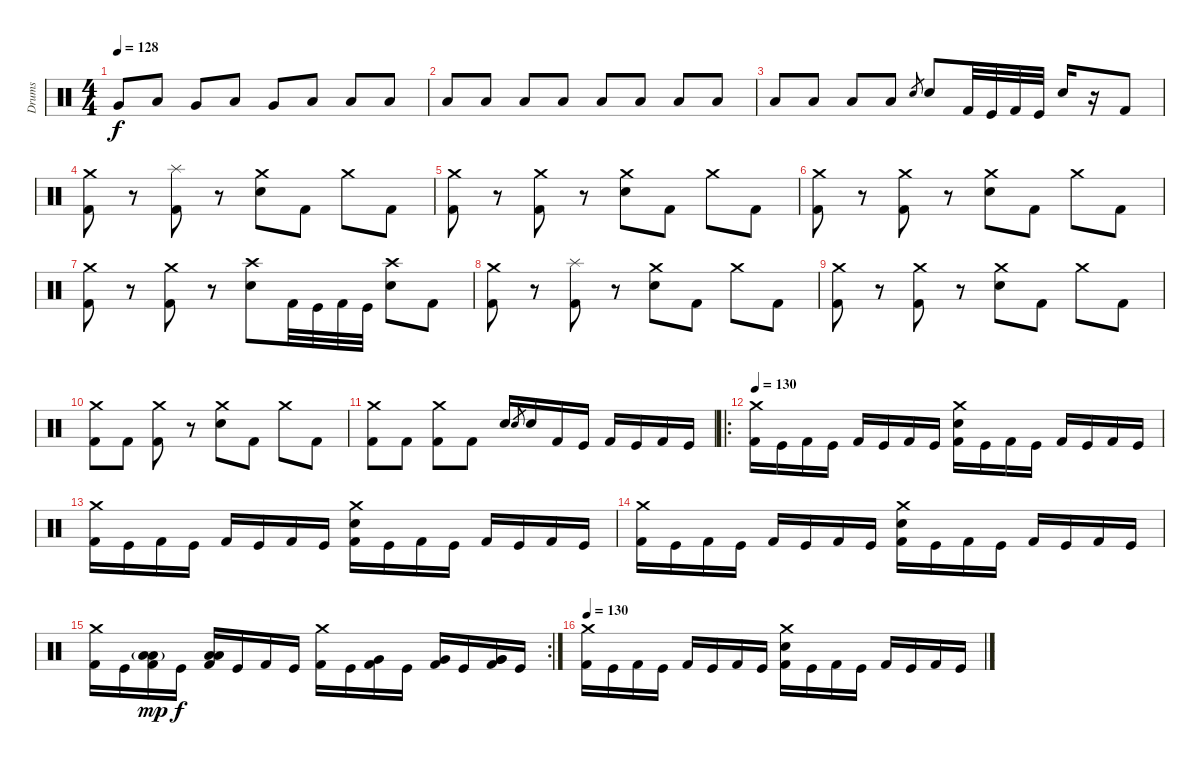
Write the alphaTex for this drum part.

\track ("Drums" "Drums") {instrument percussion}
\staff {score}
\articulation defaults
\ts (4 4)
\tempo 128
\clef neutral
\ks c "Very Low Tom (hit)".8{dy f} "Low Floor Tom (hit)".8 "Very Low Tom (hit)".8 "Low Floor Tom (hit)".8 "Very Low Tom (hit)".8 "Low Floor Tom (hit)".8 "Low Floor Tom (hit)".8 "Low Floor Tom (hit)".8
|
"Low Floor Tom (hit)".8 "Low Floor Tom (hit)".8 "Low Floor Tom (hit)".8 "Low Floor Tom (hit)".8 "Low Floor Tom (hit)".8 "Low Floor Tom (hit)".8 "Low Floor Tom (hit)".8 "Low Floor Tom (hit)".8 |
"Low Floor Tom (hit)".8 "Low Floor Tom (hit)".8 "Low Floor Tom (hit)".8 "Low Floor Tom (hit)".8 "Electric Snare (hit)".8{gr} "Electric Snare (hit)".8 "Kick (hit) 2".32 "Kick (hit)".32 "Kick (hit) 2".32 "Kick (hit)".32 "Electric Snare (hit)".16 r.16 "Kick (hit) 2".8 |
("Crash medium (hit)" "Kick (hit) 2").8 r.8 ("Splash (hit)" "Kick (hit) 2").8 r.8 ("Crash medium (hit)" "Electric Snare (hit)").8 "Kick (hit) 2".8 "Crash medium (hit)".8 "Kick (hit) 2".8 |
("Crash medium (hit)" "Kick (hit) 2").8 r.8 ("Crash medium (hit)" "Kick (hit) 2").8 r.8 ("Crash medium (hit)" "Electric Snare (hit)").8 "Kick (hit) 2".8 "Crash medium (hit)".8 "Kick (hit) 2".8 |
("Crash medium (hit)" "Kick (hit) 2").8 r.8 ("Crash medium (hit)" "Kick (hit) 2").8 r.8 ("Crash medium (hit)" "Electric Snare (hit)").8 "Kick (hit) 2".8 "Crash medium (hit)".8 "Kick (hit) 2".8 |
("Crash medium (hit)" "Kick (hit) 2").8 r.8 ("Crash medium (hit)" "Kick (hit) 2").8 r.8 ("Crash high (hit)" "Electric Snare (hit)").8 "Kick (hit) 2".32 "Kick (hit)".32 "Kick (hit) 2".32 "Kick (hit)".32 ("Crash high (hit)" "Electric Snare (hit)").8 "Kick (hit) 2".8 |
("Crash medium (hit)" "Kick (hit) 2").8 r.8 ("Splash (hit)" "Kick (hit) 2").8 r.8 ("Crash medium (hit)" "Electric Snare (hit)").8 "Kick (hit) 2".8 "Crash medium (hit)".8 "Kick (hit) 2".8 |
("Crash medium (hit)" "Kick (hit) 2").8 r.8 ("Crash medium (hit)" "Kick (hit) 2").8 r.8 ("Crash medium (hit)" "Electric Snare (hit)").8 "Kick (hit) 2".8 "Crash medium (hit)".8 "Kick (hit) 2".8 |
("Crash medium (hit)" "Kick (hit) 2").8 "Kick (hit) 2".8 ("Crash medium (hit)" "Kick (hit) 2").8 r.8 ("Crash medium (hit)" "Electric Snare (hit)").8 "Kick (hit) 2".8 "Crash medium (hit)".8 "Kick (hit) 2".8 |
("Crash medium (hit)" "Kick (hit) 2").8 "Kick (hit) 2".8 ("Crash medium (hit)" "Kick (hit) 2").8 "Kick (hit) 2".8 "Electric Snare (hit)".16 "Electric Snare (hit)".8{gr} "Electric Snare (hit)".16 "Kick (hit) 2".16 "Kick (hit)".16 "Kick (hit) 2".16 "Kick (hit)".16 "Kick (hit) 2".16 "Kick (hit)".16 |
\ro
\tempo 130
("Crash medium (hit)" "Kick (hit) 2").16 "Kick (hit)".16 "Kick (hit) 2".16 "Kick (hit)".16 "Kick (hit) 2".16 "Kick (hit)".16 "Kick (hit) 2".16 "Kick (hit)".16 ("Crash medium (hit)" "Electric Snare (hit)" "Kick (hit) 2").16 "Kick (hit)".16 "Kick (hit) 2".16 "Kick (hit)".16 "Kick (hit) 2".16 "Kick (hit)".16 "Kick (hit) 2".16 "Kick (hit)".16 |
("Crash medium (hit)" "Kick (hit) 2").16 "Kick (hit)".16 "Kick (hit) 2".16 "Kick (hit)".16 "Kick (hit) 2".16 "Kick (hit)".16 "Kick (hit) 2".16 "Kick (hit)".16 ("Crash medium (hit)" "Electric Snare (hit)" "Kick (hit) 2").16 "Kick (hit)".16 "Kick (hit) 2".16 "Kick (hit)".16 "Kick (hit) 2".16 "Kick (hit)".16 "Kick (hit) 2".16 "Kick (hit)".16 |
("Crash medium (hit)" "Kick (hit) 2").16 "Kick (hit)".16 "Kick (hit) 2".16 "Kick (hit)".16 "Kick (hit) 2".16 "Kick (hit)".16 "Kick (hit) 2".16 "Kick (hit)".16 ("Crash medium (hit)" "Electric Snare (hit)" "Kick (hit) 2").16 "Kick (hit)".16 "Kick (hit) 2".16 "Kick (hit)".16 "Kick (hit) 2".16 "Kick (hit)".16 "Kick (hit) 2".16 "Kick (hit)".16 |
\rc 2
("Crash medium (hit)" "Kick (hit) 2").16 "Kick (hit)".16 ("Low Tom (hit)"{g} "Low Tom (hit)" "Kick (hit) 2").16{dy mp} "Kick (hit)".16{dy f} ("Low Tom (hit)" "Low Tom (hit)" "Kick (hit) 2").16 "Kick (hit)".16 "Kick (hit) 2".16 "Kick (hit)".16 ("Crash medium (hit)" "Kick (hit) 2").16 "Kick (hit)".16 ("Very Low Tom (hit)" "Kick (hit) 2").16 "Kick (hit)".16 ("Very Low Tom (hit)" "Kick (hit) 2").16 "Kick (hit)".16 ("Very Low Tom (hit)" "Very Low Tom (hit)" "Kick (hit) 2").16 "Kick (hit)".16 |
\tempo 130
("Crash medium (hit)" "Kick (hit) 2").16 "Kick (hit)".16 "Kick (hit) 2".16 "Kick (hit)".16 "Kick (hit) 2".16 "Kick (hit)".16 "Kick (hit) 2".16 "Kick (hit)".16 ("Crash medium (hit)" "Electric Snare (hit)" "Kick (hit) 2").16 "Kick (hit)".16 "Kick (hit) 2".16 "Kick (hit)".16 "Kick (hit) 2".16 "Kick (hit)".16 "Kick (hit) 2".16 "Kick (hit)".16
